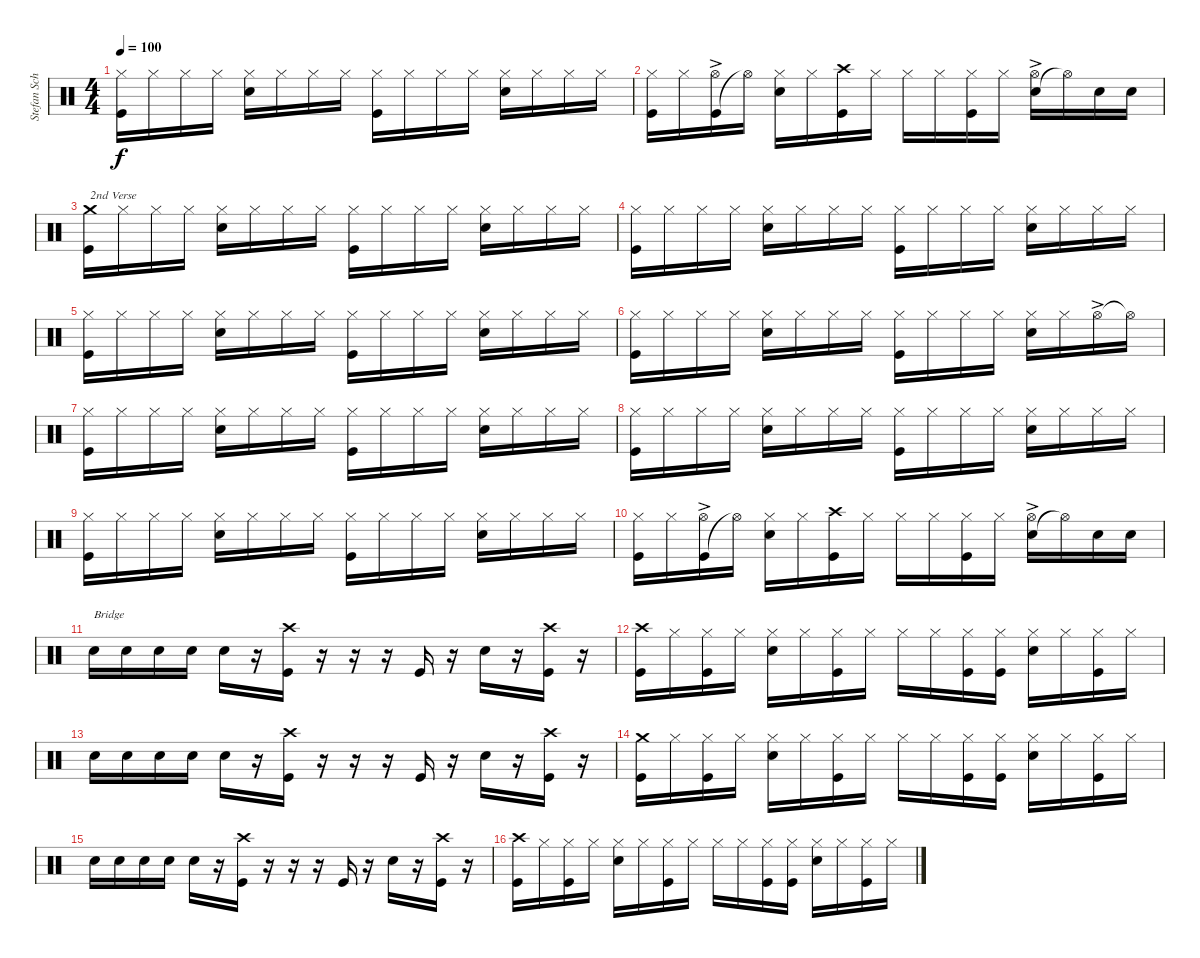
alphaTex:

\track ("Stefan Schwarzmann" "Stefan Sch") {instrument percussion}
\staff {score}
\articulation defaults
\ts (4 4)
\tempo 100
\clef neutral
\ks c
("Kick (hit)" "Hi-Hat (closed)").16{dy f} "Hi-Hat (closed)".16 "Hi-Hat (closed)".16 "Hi-Hat (closed)".16 ("Snare (hit) 2" "Hi-Hat (closed)").16 "Hi-Hat (closed)".16 "Hi-Hat (closed)".16 "Hi-Hat (closed)".16 ("Kick (hit)" "Hi-Hat (closed)").16 "Hi-Hat (closed)".16 "Hi-Hat (closed)".16 "Hi-Hat (closed)".16 ("Snare (hit) 2" "Hi-Hat (closed)").16 "Hi-Hat (closed)".16 "Hi-Hat (closed)".16 "Hi-Hat (closed)".16 |
("Kick (hit)" "Hi-Hat (closed)").16 "Hi-Hat (closed)".16 ("Kick (hit)" "Hi-Hat (open)"{ac}).16 "Hi-Hat (open)"{t}.16 ("Snare (hit) 2" "Hi-Hat (closed)").16 "Hi-Hat (closed)".16 ("Kick (hit)" "Crash high (hit)").16 "Hi-Hat (closed)".16 "Hi-Hat (closed)".16 "Hi-Hat (closed)".16 ("Hi-Hat (closed)" "Kick (hit)").16 "Hi-Hat (closed)".16 ("Snare (hit) 2" "Hi-Hat (open)"{ac}).16 "Hi-Hat (open)"{t}.16 "Snare (hit) 2".16 "Snare (hit) 2".16 |
("Kick (hit)" "Crash medium (hit)").16{txt "2nd Verse"} "Hi-Hat (closed)".16 "Hi-Hat (closed)".16 "Hi-Hat (closed)".16 ("Snare (hit) 2" "Hi-Hat (closed)").16 "Hi-Hat (closed)".16 "Hi-Hat (closed)".16 "Hi-Hat (closed)".16 ("Kick (hit)" "Hi-Hat (closed)").16 "Hi-Hat (closed)".16 "Hi-Hat (closed)".16 "Hi-Hat (closed)".16 ("Snare (hit) 2" "Hi-Hat (closed)").16 "Hi-Hat (closed)".16 "Hi-Hat (closed)".16 "Hi-Hat (closed)".16 |
("Kick (hit)" "Hi-Hat (closed)").16 "Hi-Hat (closed)".16 "Hi-Hat (closed)".16 "Hi-Hat (closed)".16 ("Snare (hit) 2" "Hi-Hat (closed)").16 "Hi-Hat (closed)".16 "Hi-Hat (closed)".16 "Hi-Hat (closed)".16 ("Kick (hit)" "Hi-Hat (closed)").16 "Hi-Hat (closed)".16 "Hi-Hat (closed)".16 "Hi-Hat (closed)".16 ("Snare (hit) 2" "Hi-Hat (closed)").16 "Hi-Hat (closed)".16 "Hi-Hat (closed)".16 "Hi-Hat (closed)".16 |
("Kick (hit)" "Hi-Hat (closed)").16 "Hi-Hat (closed)".16 "Hi-Hat (closed)".16 "Hi-Hat (closed)".16 ("Snare (hit) 2" "Hi-Hat (closed)").16 "Hi-Hat (closed)".16 "Hi-Hat (closed)".16 "Hi-Hat (closed)".16 ("Kick (hit)" "Hi-Hat (closed)").16 "Hi-Hat (closed)".16 "Hi-Hat (closed)".16 "Hi-Hat (closed)".16 ("Snare (hit) 2" "Hi-Hat (closed)").16 "Hi-Hat (closed)".16 "Hi-Hat (closed)".16 "Hi-Hat (closed)".16 |
("Kick (hit)" "Hi-Hat (closed)").16 "Hi-Hat (closed)".16 "Hi-Hat (closed)".16 "Hi-Hat (closed)".16 ("Snare (hit) 2" "Hi-Hat (closed)").16 "Hi-Hat (closed)".16 "Hi-Hat (closed)".16 "Hi-Hat (closed)".16 ("Kick (hit)" "Hi-Hat (closed)").16 "Hi-Hat (closed)".16 "Hi-Hat (closed)".16 "Hi-Hat (closed)".16 ("Snare (hit) 2" "Hi-Hat (closed)").16 "Hi-Hat (closed)".16 "Hi-Hat (open)"{ac}.16 "Hi-Hat (open)"{t}.16 |
("Kick (hit)" "Hi-Hat (closed)").16 "Hi-Hat (closed)".16 "Hi-Hat (closed)".16 "Hi-Hat (closed)".16 ("Snare (hit) 2" "Hi-Hat (closed)").16 "Hi-Hat (closed)".16 "Hi-Hat (closed)".16 "Hi-Hat (closed)".16 ("Kick (hit)" "Hi-Hat (closed)").16 "Hi-Hat (closed)".16 "Hi-Hat (closed)".16 "Hi-Hat (closed)".16 ("Snare (hit) 2" "Hi-Hat (closed)").16 "Hi-Hat (closed)".16 "Hi-Hat (closed)".16 "Hi-Hat (closed)".16 |
("Kick (hit)" "Hi-Hat (closed)").16 "Hi-Hat (closed)".16 "Hi-Hat (closed)".16 "Hi-Hat (closed)".16 ("Snare (hit) 2" "Hi-Hat (closed)").16 "Hi-Hat (closed)".16 "Hi-Hat (closed)".16 "Hi-Hat (closed)".16 ("Kick (hit)" "Hi-Hat (closed)").16 "Hi-Hat (closed)".16 "Hi-Hat (closed)".16 "Hi-Hat (closed)".16 ("Snare (hit) 2" "Hi-Hat (closed)").16 "Hi-Hat (closed)".16 "Hi-Hat (closed)".16 "Hi-Hat (closed)".16 |
("Kick (hit)" "Hi-Hat (closed)").16 "Hi-Hat (closed)".16 "Hi-Hat (closed)".16 "Hi-Hat (closed)".16 ("Snare (hit) 2" "Hi-Hat (closed)").16 "Hi-Hat (closed)".16 "Hi-Hat (closed)".16 "Hi-Hat (closed)".16 ("Kick (hit)" "Hi-Hat (closed)").16 "Hi-Hat (closed)".16 "Hi-Hat (closed)".16 "Hi-Hat (closed)".16 ("Snare (hit) 2" "Hi-Hat (closed)").16 "Hi-Hat (closed)".16 "Hi-Hat (closed)".16 "Hi-Hat (closed)".16 |
("Kick (hit)" "Hi-Hat (closed)").16 "Hi-Hat (closed)".16 ("Kick (hit)" "Hi-Hat (open)"{ac}).16 "Hi-Hat (open)"{t}.16 ("Snare (hit) 2" "Hi-Hat (closed)").16 "Hi-Hat (closed)".16 ("Kick (hit)" "Crash high (hit)").16 "Hi-Hat (closed)".16 "Hi-Hat (closed)".16 "Hi-Hat (closed)".16 ("Hi-Hat (closed)" "Kick (hit)").16 "Hi-Hat (closed)".16 ("Snare (hit) 2" "Hi-Hat (open)"{ac}).16 "Hi-Hat (open)"{t}.16 "Snare (hit) 2".16 "Snare (hit) 2".16 |
"Snare (hit) 2".16{txt "Bridge"} "Snare (hit) 2".16 "Snare (hit) 2".16 "Snare (hit) 2".16 "Snare (hit) 2".16 r.16 ("Kick (hit)" "Crash high (hit)").16 r.16 r.16 r.16 "Kick (hit)".16 r.16 "Snare (hit) 2".16 r.16 ("Kick (hit)" "Crash high (hit)").16 r.16 |
("Kick (hit)" "Crash high (hit)").16 "Hi-Hat (closed)".16 ("Hi-Hat (closed)" "Kick (hit)").16 "Hi-Hat (closed)".16 ("Snare (hit) 2" "Hi-Hat (closed)").16 "Hi-Hat (closed)".16 ("Hi-Hat (closed)" "Kick (hit)").16 "Hi-Hat (closed)".16 "Hi-Hat (closed)".16 "Hi-Hat (closed)".16 ("Hi-Hat (closed)" "Kick (hit)").16 ("Hi-Hat (closed)" "Kick (hit)").16 ("Snare (hit) 2" "Hi-Hat (closed)").16 "Hi-Hat (closed)".16 ("Hi-Hat (closed)" "Kick (hit)").16 "Hi-Hat (closed)".16 |
"Snare (hit) 2".16 "Snare (hit) 2".16 "Snare (hit) 2".16 "Snare (hit) 2".16 "Snare (hit) 2".16 r.16 ("Kick (hit)" "Crash high (hit)").16 r.16 r.16 r.16 "Kick (hit)".16 r.16 "Snare (hit) 2".16 r.16 ("Kick (hit)" "Crash high (hit)").16 r.16 |
("Kick (hit)" "Crash medium (hit)").16 "Hi-Hat (closed)".16 ("Hi-Hat (closed)" "Kick (hit)").16 "Hi-Hat (closed)".16 ("Snare (hit) 2" "Hi-Hat (closed)").16 "Hi-Hat (closed)".16 ("Hi-Hat (closed)" "Kick (hit)").16 "Hi-Hat (closed)".16 "Hi-Hat (closed)".16 "Hi-Hat (closed)".16 ("Hi-Hat (closed)" "Kick (hit)").16 ("Hi-Hat (closed)" "Kick (hit)").16 ("Snare (hit) 2" "Hi-Hat (closed)").16 "Hi-Hat (closed)".16 ("Hi-Hat (closed)" "Kick (hit)").16 "Hi-Hat (closed)".16 |
"Snare (hit) 2".16 "Snare (hit) 2".16 "Snare (hit) 2".16 "Snare (hit) 2".16 "Snare (hit) 2".16 r.16 ("Kick (hit)" "Crash high (hit)").16 r.16 r.16 r.16 "Kick (hit)".16 r.16 "Snare (hit) 2".16 r.16 ("Kick (hit)" "Crash high (hit)").16 r.16 |
("Kick (hit)" "Crash high (hit)").16 "Hi-Hat (closed)".16 ("Hi-Hat (closed)" "Kick (hit)").16 "Hi-Hat (closed)".16 ("Snare (hit) 2" "Hi-Hat (closed)").16 "Hi-Hat (closed)".16 ("Hi-Hat (closed)" "Kick (hit)").16 "Hi-Hat (closed)".16 "Hi-Hat (closed)".16 "Hi-Hat (closed)".16 ("Hi-Hat (closed)" "Kick (hit)").16 ("Hi-Hat (closed)" "Kick (hit)").16 ("Snare (hit) 2" "Hi-Hat (closed)").16 "Hi-Hat (closed)".16 ("Hi-Hat (closed)" "Kick (hit)").16 "Hi-Hat (closed)".16
